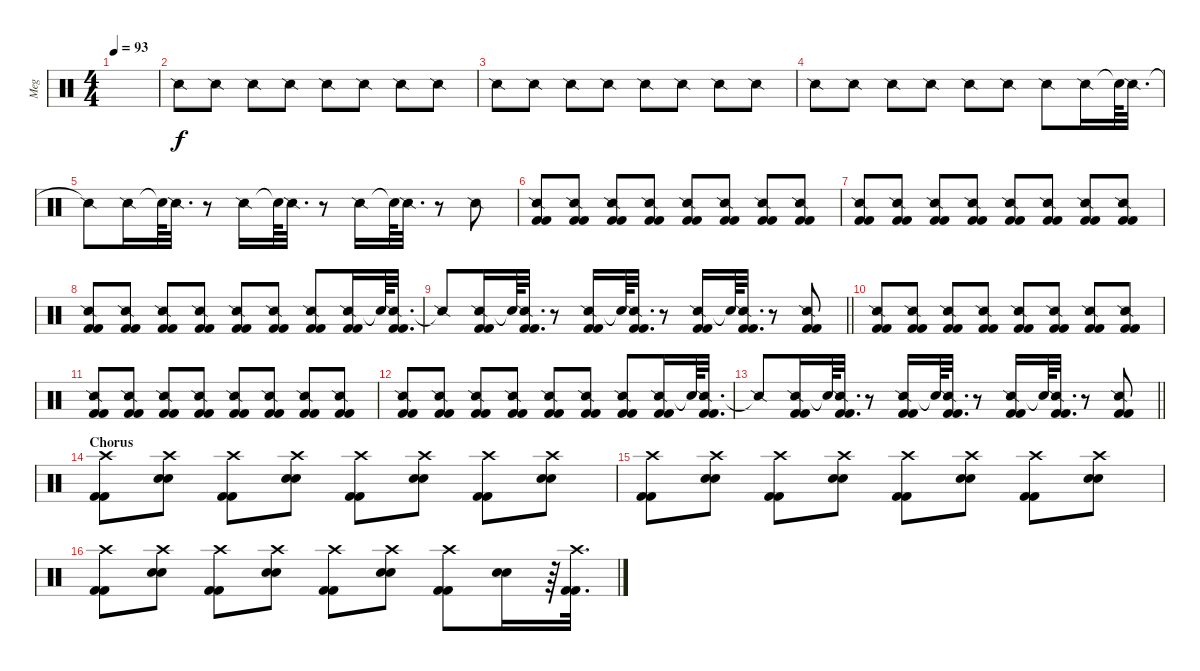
\track ("Meg" "Meg") {instrument percussion}
\staff {score}
\articulation defaults
\ts (4 4)
\tempo 93
\clef neutral
\ks c
|
"Snare (side stick) 2".8 "Snare (side stick) 2".8 "Snare (side stick) 2".8 "Snare (side stick) 2".8 "Snare (side stick) 2".8 "Snare (side stick) 2".8 "Snare (side stick) 2".8 "Snare (side stick) 2".8 |
"Snare (side stick) 2".8 "Snare (side stick) 2".8 "Snare (side stick) 2".8 "Snare (side stick) 2".8 "Snare (side stick) 2".8 "Snare (side stick) 2".8 "Snare (side stick) 2".8 "Snare (side stick) 2".8 |
"Snare (side stick) 2".8 "Snare (side stick) 2".8 "Snare (side stick) 2".8 "Snare (side stick) 2".8 "Snare (side stick) 2".8 "Snare (side stick) 2".8 "Snare (side stick) 2".8 "Snare (side stick) 2".16 "Snare (hit)"{t}.64 "Snare (side stick) 2".32{d} |
"Snare (side stick) 2"{t}.8 "Snare (side stick) 2".16 "Snare (hit)"{t}.64 "Snare (side stick) 2".32{d} r.8 "Snare (side stick) 2".16 "Snare (hit)"{t}.64 "Snare (side stick) 2".32{d} r.8 "Snare (side stick) 2".16 "Snare (hit)"{t}.64 "Snare (side stick) 2".32{d} r.8 "Snare (side stick) 2".8 |
("Snare (side stick) 2" "Kick (hit) 2" "Kick (hit) 2").8 ("Snare (side stick) 2" "Kick (hit) 2" "Kick (hit) 2").8 ("Snare (side stick) 2" "Kick (hit) 2" "Kick (hit) 2").8 ("Snare (side stick) 2" "Kick (hit) 2" "Kick (hit) 2").8 ("Snare (side stick) 2" "Kick (hit) 2" "Kick (hit) 2").8 ("Snare (side stick) 2" "Kick (hit) 2" "Kick (hit) 2").8 ("Snare (side stick) 2" "Kick (hit) 2" "Kick (hit) 2").8 ("Snare (side stick) 2" "Kick (hit) 2" "Kick (hit) 2").8 |
("Snare (side stick) 2" "Kick (hit) 2" "Kick (hit) 2").8 ("Snare (side stick) 2" "Kick (hit) 2" "Kick (hit) 2").8 ("Snare (side stick) 2" "Kick (hit) 2" "Kick (hit) 2").8 ("Snare (side stick) 2" "Kick (hit) 2" "Kick (hit) 2").8 ("Snare (side stick) 2" "Kick (hit) 2" "Kick (hit) 2").8 ("Snare (side stick) 2" "Kick (hit) 2" "Kick (hit) 2").8 ("Snare (side stick) 2" "Kick (hit) 2" "Kick (hit) 2").8 ("Snare (side stick) 2" "Kick (hit) 2" "Kick (hit) 2").8 |
("Snare (side stick) 2" "Kick (hit) 2" "Kick (hit) 2").8 ("Snare (side stick) 2" "Kick (hit) 2" "Kick (hit) 2").8 ("Snare (side stick) 2" "Kick (hit) 2" "Kick (hit) 2").8 ("Snare (side stick) 2" "Kick (hit) 2" "Kick (hit) 2").8 ("Snare (side stick) 2" "Kick (hit) 2" "Kick (hit) 2").8 ("Snare (side stick) 2" "Kick (hit) 2" "Kick (hit) 2").8 ("Snare (side stick) 2" "Kick (hit) 2" "Kick (hit) 2").8 ("Snare (side stick) 2" "Kick (hit) 2" "Kick (hit) 2").16 "Snare (hit)"{t}.64 ("Snare (side stick) 2" "Kick (hit) 2" "Kick (hit) 2").32{d} |
\barLineRight lightlight "Snare (side stick) 2"{t}.8
("Snare (side stick) 2" "Kick (hit) 2" "Kick (hit) 2").16 "Snare (hit)"{t}.64 ("Snare (side stick) 2" "Kick (hit) 2" "Kick (hit) 2").32{d} r.8 ("Snare (side stick) 2" "Kick (hit) 2" "Kick (hit) 2").16 "Snare (hit)"{t}.64 ("Snare (side stick) 2" "Kick (hit) 2" "Kick (hit) 2").32{d} r.8 ("Snare (side stick) 2" "Kick (hit) 2" "Kick (hit) 2").16 "Snare (hit)"{t}.64 ("Snare (side stick) 2" "Kick (hit) 2" "Kick (hit) 2").32{d} r.8 ("Snare (side stick) 2" "Kick (hit) 2" "Kick (hit) 2").8 |
("Snare (side stick) 2" "Kick (hit) 2" "Kick (hit) 2").8 ("Snare (side stick) 2" "Kick (hit) 2" "Kick (hit) 2").8 ("Snare (side stick) 2" "Kick (hit) 2" "Kick (hit) 2").8 ("Snare (side stick) 2" "Kick (hit) 2" "Kick (hit) 2").8 ("Snare (side stick) 2" "Kick (hit) 2" "Kick (hit) 2").8 ("Snare (side stick) 2" "Kick (hit) 2" "Kick (hit) 2").8 ("Snare (side stick) 2" "Kick (hit) 2" "Kick (hit) 2").8 ("Snare (side stick) 2" "Kick (hit) 2" "Kick (hit) 2").8 |
("Snare (side stick) 2" "Kick (hit) 2" "Kick (hit) 2").8 ("Snare (side stick) 2" "Kick (hit) 2" "Kick (hit) 2").8 ("Snare (side stick) 2" "Kick (hit) 2" "Kick (hit) 2").8 ("Snare (side stick) 2" "Kick (hit) 2" "Kick (hit) 2").8 ("Snare (side stick) 2" "Kick (hit) 2" "Kick (hit) 2").8 ("Snare (side stick) 2" "Kick (hit) 2" "Kick (hit) 2").8 ("Snare (side stick) 2" "Kick (hit) 2" "Kick (hit) 2").8 ("Snare (side stick) 2" "Kick (hit) 2" "Kick (hit) 2").8 |
("Snare (side stick) 2" "Kick (hit) 2" "Kick (hit) 2").8 ("Snare (side stick) 2" "Kick (hit) 2" "Kick (hit) 2").8 ("Snare (side stick) 2" "Kick (hit) 2" "Kick (hit) 2").8 ("Snare (side stick) 2" "Kick (hit) 2" "Kick (hit) 2").8 ("Snare (side stick) 2" "Kick (hit) 2" "Kick (hit) 2").8 ("Snare (side stick) 2" "Kick (hit) 2" "Kick (hit) 2").8 ("Snare (side stick) 2" "Kick (hit) 2" "Kick (hit) 2").8 ("Snare (side stick) 2" "Kick (hit) 2" "Kick (hit) 2").16 "Snare (hit)"{t}.64 ("Snare (side stick) 2" "Kick (hit) 2" "Kick (hit) 2").32{d} |
\barLineRight lightlight "Snare (side stick) 2"{t}.8
("Snare (side stick) 2" "Kick (hit) 2" "Kick (hit) 2").16 "Snare (hit)"{t}.64 ("Snare (side stick) 2" "Kick (hit) 2" "Kick (hit) 2").32{d} r.8 ("Snare (side stick) 2" "Kick (hit) 2" "Kick (hit) 2").16 "Snare (hit)"{t}.64 ("Snare (side stick) 2" "Kick (hit) 2" "Kick (hit) 2").32{d} r.8 ("Snare (side stick) 2" "Kick (hit) 2" "Kick (hit) 2").16 "Snare (hit)"{t}.64 ("Snare (side stick) 2" "Kick (hit) 2" "Kick (hit) 2").32{d} r.8 ("Snare (side stick) 2" "Kick (hit) 2" "Kick (hit) 2").8 |
\section ("" "Chorus")
("Crash high (hit)" "Kick (hit) 2" "Kick (hit) 2").8 ("Crash high (hit)" "Snare (hit) 2" "Snare (hit) 2").8 ("Crash high (hit)" "Kick (hit) 2" "Kick (hit) 2").8 ("Crash high (hit)" "Snare (hit) 2" "Snare (hit) 2").8 ("Crash high (hit)" "Kick (hit) 2" "Kick (hit) 2").8 ("Crash high (hit)" "Snare (hit) 2" "Snare (hit) 2").8 ("Crash high (hit)" "Kick (hit) 2" "Kick (hit) 2").8 ("Crash high (hit)" "Snare (hit) 2" "Snare (hit) 2").8 |
("Crash high (hit)" "Kick (hit) 2" "Kick (hit) 2").8 ("Crash high (hit)" "Snare (hit) 2" "Snare (hit) 2").8 ("Crash high (hit)" "Kick (hit) 2" "Kick (hit) 2").8 ("Crash high (hit)" "Snare (hit) 2" "Snare (hit) 2").8 ("Crash high (hit)" "Kick (hit) 2" "Kick (hit) 2").8 ("Crash high (hit)" "Snare (hit) 2" "Snare (hit) 2").8 ("Crash high (hit)" "Kick (hit) 2" "Kick (hit) 2").8 ("Crash high (hit)" "Snare (hit) 2" "Snare (hit) 2").8 |
("Crash high (hit)" "Kick (hit) 2" "Kick (hit) 2").8 ("Crash high (hit)" "Snare (hit) 2" "Snare (hit) 2").8 ("Crash high (hit)" "Kick (hit) 2" "Kick (hit) 2").8 ("Crash high (hit)" "Snare (hit) 2" "Snare (hit) 2").8 ("Crash high (hit)" "Kick (hit) 2" "Kick (hit) 2").8 ("Crash high (hit)" "Snare (hit) 2" "Snare (hit) 2").8 ("Crash high (hit)" "Kick (hit) 2" "Kick (hit) 2").8 ("Snare (hit) 2" "Snare (hit) 2").16 r.64 ("Crash high (hit)" "Kick (hit) 2" "Kick (hit) 2").32{d}
